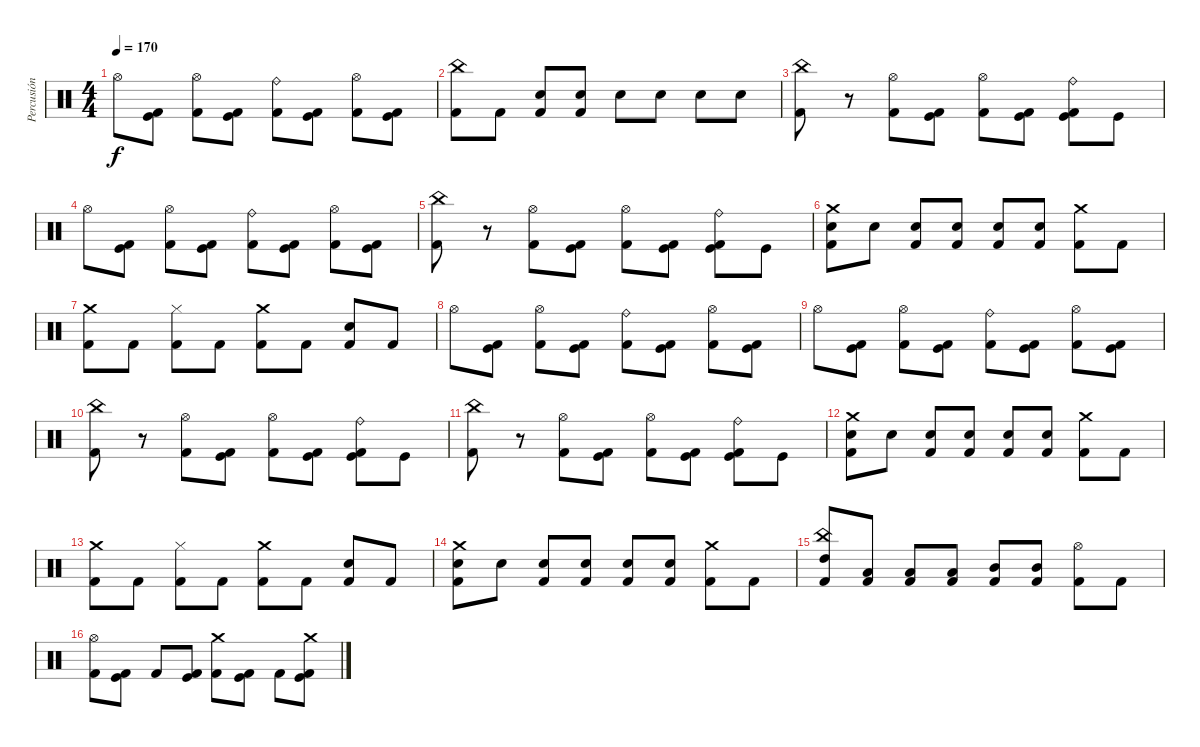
\track ("Percusión" "Percusión") {instrument percussion}
\staff {score}
\articulation defaults
\ts (4 4)
\tempo 170
\clef neutral
\ks c "Hi-Hat (open)".8{dy f}
("Kick (hit)" "Kick (hit) 2").8 ("Hi-Hat (open)" "Kick (hit) 2").8 ("Kick (hit)" "Kick (hit) 2").8 ("Ride (bell)" "Kick (hit) 2").8 ("Kick (hit)" "Kick (hit) 2").8 ("Hi-Hat (open)" "Kick (hit) 2").8 ("Kick (hit)" "Kick (hit) 2").8 |
("China (hit)" "Kick (hit) 2").8 "Kick (hit) 2".8 ("Snare (hit) 2" "Kick (hit) 2").8 ("Snare (hit) 2" "Kick (hit) 2").8 "Snare (hit) 2".8 "Snare (hit) 2".8 "Snare (hit) 2".8 "Snare (hit) 2".8 |
("China (hit)" "Kick (hit) 2").8 r.8 ("Hi-Hat (open)" "Kick (hit) 2").8 ("Kick (hit)" "Kick (hit) 2").8 ("Hi-Hat (open)" "Kick (hit) 2").8 ("Kick (hit)" "Kick (hit) 2").8 ("Ride (bell)" "Kick (hit)" "Kick (hit) 2").8 "Kick (hit)".8 |
"Hi-Hat (open)".8 ("Kick (hit)" "Kick (hit) 2").8 ("Hi-Hat (open)" "Kick (hit) 2").8 ("Kick (hit)" "Kick (hit) 2").8 ("Ride (bell)" "Kick (hit) 2").8 ("Kick (hit)" "Kick (hit) 2").8 ("Hi-Hat (open)" "Kick (hit) 2").8 ("Kick (hit)" "Kick (hit) 2").8 |
("China (hit)" "Kick (hit) 2").8 r.8 ("Hi-Hat (open)" "Kick (hit) 2").8 ("Kick (hit)" "Kick (hit) 2").8 ("Hi-Hat (open)" "Kick (hit) 2").8 ("Kick (hit)" "Kick (hit) 2").8 ("Ride (bell)" "Kick (hit)" "Kick (hit) 2").8 "Kick (hit)".8 |
("Crash medium (hit)" "Snare (hit) 2" "Kick (hit) 2").8 "Snare (hit) 2".8 ("Snare (hit) 2" "Kick (hit) 2").8 ("Snare (hit) 2" "Kick (hit) 2").8 ("Snare (hit) 2" "Kick (hit) 2").8 ("Snare (hit) 2" "Kick (hit) 2").8 ("Crash medium (hit)" "Kick (hit) 2").8 "Kick (hit) 2".8 |
("Crash medium (hit)" "Kick (hit) 2").8 "Kick (hit) 2".8 ("Hi-Hat (closed)" "Kick (hit) 2").8 "Kick (hit) 2".8 ("Crash medium (hit)" "Kick (hit) 2").8 "Kick (hit) 2".8 ("Snare (hit) 2" "Kick (hit) 2").8 "Kick (hit) 2".8 |
"Hi-Hat (open)".8 ("Kick (hit)" "Kick (hit) 2").8 ("Hi-Hat (open)" "Kick (hit) 2").8 ("Kick (hit)" "Kick (hit) 2").8 ("Ride (bell)" "Kick (hit) 2").8 ("Kick (hit)" "Kick (hit) 2").8 ("Hi-Hat (open)" "Kick (hit) 2").8 ("Kick (hit)" "Kick (hit) 2").8 |
"Hi-Hat (open)".8 ("Kick (hit)" "Kick (hit) 2").8 ("Hi-Hat (open)" "Kick (hit) 2").8 ("Kick (hit)" "Kick (hit) 2").8 ("Ride (bell)" "Kick (hit) 2").8 ("Kick (hit)" "Kick (hit) 2").8 ("Hi-Hat (open)" "Kick (hit) 2").8 ("Kick (hit)" "Kick (hit) 2").8 |
("China (hit)" "Kick (hit) 2").8 r.8 ("Hi-Hat (open)" "Kick (hit) 2").8 ("Kick (hit)" "Kick (hit) 2").8 ("Hi-Hat (open)" "Kick (hit) 2").8 ("Kick (hit)" "Kick (hit) 2").8 ("Ride (bell)" "Kick (hit)" "Kick (hit) 2").8 "Kick (hit)".8 |
("China (hit)" "Kick (hit) 2").8 r.8 ("Hi-Hat (open)" "Kick (hit) 2").8 ("Kick (hit)" "Kick (hit) 2").8 ("Hi-Hat (open)" "Kick (hit) 2").8 ("Kick (hit)" "Kick (hit) 2").8 ("Ride (bell)" "Kick (hit)" "Kick (hit) 2").8 "Kick (hit)".8 |
("Crash medium (hit)" "Snare (hit) 2" "Kick (hit) 2").8 "Snare (hit) 2".8 ("Snare (hit) 2" "Kick (hit) 2").8 ("Snare (hit) 2" "Kick (hit) 2").8 ("Snare (hit) 2" "Kick (hit) 2").8 ("Snare (hit) 2" "Kick (hit) 2").8 ("Crash medium (hit)" "Kick (hit) 2").8 "Kick (hit) 2".8 |
("Crash medium (hit)" "Kick (hit) 2").8 "Kick (hit) 2".8 ("Hi-Hat (closed)" "Kick (hit) 2").8 "Kick (hit) 2".8 ("Crash medium (hit)" "Kick (hit) 2").8 "Kick (hit) 2".8 ("Snare (hit) 2" "Kick (hit) 2").8 "Kick (hit) 2".8 |
("Crash medium (hit)" "Snare (hit) 2" "Kick (hit) 2").8 "Snare (hit) 2".8 ("Snare (hit) 2" "Kick (hit) 2").8 ("Snare (hit) 2" "Kick (hit) 2").8 ("Snare (hit) 2" "Kick (hit) 2").8 ("Snare (hit) 2" "Kick (hit) 2").8 ("Crash medium (hit)" "Kick (hit) 2").8 "Kick (hit) 2".8 |
("China (hit)" "High Tom (hit)" "Kick (hit) 2").8 ("Low Tom (hit)" "Kick (hit) 2").8 ("Low Tom (hit)" "Kick (hit) 2").8 ("Low Tom (hit)" "Kick (hit) 2").8 ("Mid Tom (hit)" "Kick (hit) 2").8 ("Mid Tom (hit)" "Kick (hit) 2").8 ("Hi-Hat (open)" "Kick (hit) 2").8 "Kick (hit) 2".8 |
("Hi-Hat (open)" "Kick (hit) 2").8 ("Kick (hit)" "Kick (hit) 2").8 "Kick (hit) 2".8 ("Kick (hit)" "Kick (hit) 2").8 ("Crash medium (hit)" "Kick (hit) 2").8 ("Kick (hit)" "Kick (hit) 2").8 "Kick (hit) 2".8 ("Crash medium (hit)" "Kick (hit)" "Kick (hit) 2").8
